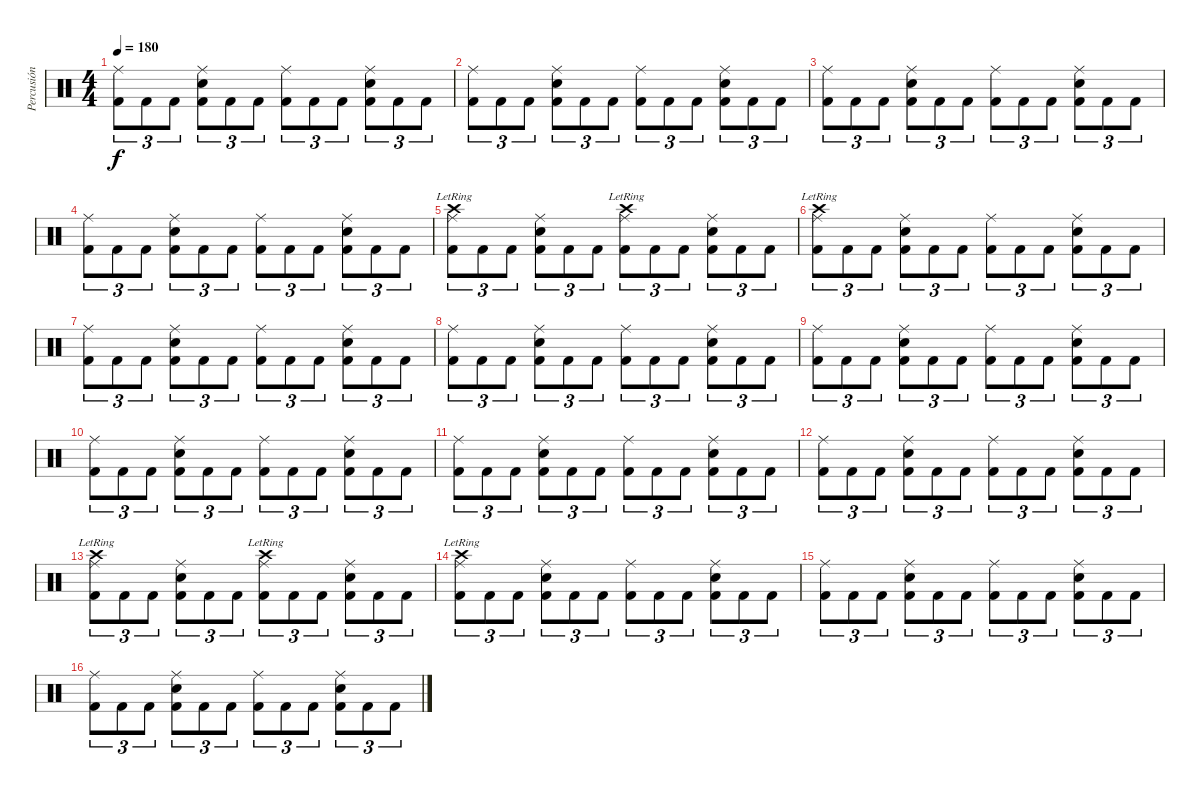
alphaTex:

\track ("Percusión" "Percusión") {instrument percussion}
\staff {score}
\articulation defaults
\ts (4 4)
\tempo 180
\clef neutral
\ks c
("Ride (middle)" "Kick (hit) 2").8{tu (3 2) dy f} "Kick (hit) 2".8{tu (3 2)} "Kick (hit) 2".8{tu (3 2)} ("Ride (middle)" "Snare (hit) 2" "Kick (hit) 2").8{tu (3 2)} "Kick (hit) 2".8{tu (3 2)} "Kick (hit) 2".8{tu (3 2)} ("Ride (middle)" "Kick (hit) 2").8{tu (3 2)} "Kick (hit) 2".8{tu (3 2)} "Kick (hit) 2".8{tu (3 2)} ("Ride (middle)" "Snare (hit) 2" "Kick (hit) 2").8{tu (3 2)} "Kick (hit) 2".8{tu (3 2)} "Kick (hit) 2".8{tu (3 2)} |
("Ride (middle)" "Kick (hit) 2").8{tu (3 2)} "Kick (hit) 2".8{tu (3 2)} "Kick (hit) 2".8{tu (3 2)} ("Ride (middle)" "Snare (hit) 2" "Kick (hit) 2").8{tu (3 2)} "Kick (hit) 2".8{tu (3 2)} "Kick (hit) 2".8{tu (3 2)} ("Ride (middle)" "Kick (hit) 2").8{tu (3 2)} "Kick (hit) 2".8{tu (3 2)} "Kick (hit) 2".8{tu (3 2)} ("Ride (middle)" "Snare (hit) 2" "Kick (hit) 2").8{tu (3 2)} "Kick (hit) 2".8{tu (3 2)} "Kick (hit) 2".8{tu (3 2)} |
("Ride (middle)" "Kick (hit) 2").8{tu (3 2)} "Kick (hit) 2".8{tu (3 2)} "Kick (hit) 2".8{tu (3 2)} ("Ride (middle)" "Snare (hit) 2" "Kick (hit) 2").8{tu (3 2)} "Kick (hit) 2".8{tu (3 2)} "Kick (hit) 2".8{tu (3 2)} ("Ride (middle)" "Kick (hit) 2").8{tu (3 2)} "Kick (hit) 2".8{tu (3 2)} "Kick (hit) 2".8{tu (3 2)} ("Ride (middle)" "Snare (hit) 2" "Kick (hit) 2").8{tu (3 2)} "Kick (hit) 2".8{tu (3 2)} "Kick (hit) 2".8{tu (3 2)} |
("Ride (middle)" "Kick (hit) 2").8{tu (3 2)} "Kick (hit) 2".8{tu (3 2)} "Kick (hit) 2".8{tu (3 2)} ("Ride (middle)" "Snare (hit) 2" "Kick (hit) 2").8{tu (3 2)} "Kick (hit) 2".8{tu (3 2)} "Kick (hit) 2".8{tu (3 2)} ("Ride (middle)" "Kick (hit) 2").8{tu (3 2)} "Kick (hit) 2".8{tu (3 2)} "Kick (hit) 2".8{tu (3 2)} ("Ride (middle)" "Snare (hit) 2" "Kick (hit) 2").8{tu (3 2)} "Kick (hit) 2".8{tu (3 2)} "Kick (hit) 2".8{tu (3 2)} |
("Crash high (hit)"{lr} "Ride (middle)" "Kick (hit) 2").8{tu (3 2)} "Kick (hit) 2".8{tu (3 2)} "Kick (hit) 2".8{tu (3 2)} ("Ride (middle)" "Snare (hit) 2" "Kick (hit) 2").8{tu (3 2)} "Kick (hit) 2".8{tu (3 2)} "Kick (hit) 2".8{tu (3 2)} ("Crash high (hit)"{lr} "Ride (middle)" "Kick (hit) 2").8{tu (3 2)} "Kick (hit) 2".8{tu (3 2)} "Kick (hit) 2".8{tu (3 2)} ("Ride (middle)" "Snare (hit) 2" "Kick (hit) 2").8{tu (3 2)} "Kick (hit) 2".8{tu (3 2)} "Kick (hit) 2".8{tu (3 2)} |
("Crash high (hit)"{lr} "Ride (middle)" "Kick (hit) 2").8{tu (3 2)} "Kick (hit) 2".8{tu (3 2)} "Kick (hit) 2".8{tu (3 2)} ("Ride (middle)" "Snare (hit) 2" "Kick (hit) 2").8{tu (3 2)} "Kick (hit) 2".8{tu (3 2)} "Kick (hit) 2".8{tu (3 2)} ("Ride (middle)" "Kick (hit) 2").8{tu (3 2)} "Kick (hit) 2".8{tu (3 2)} "Kick (hit) 2".8{tu (3 2)} ("Ride (middle)" "Snare (hit) 2" "Kick (hit) 2").8{tu (3 2)} "Kick (hit) 2".8{tu (3 2)} "Kick (hit) 2".8{tu (3 2)} |
("Ride (middle)" "Kick (hit) 2").8{tu (3 2)} "Kick (hit) 2".8{tu (3 2)} "Kick (hit) 2".8{tu (3 2)} ("Ride (middle)" "Snare (hit) 2" "Kick (hit) 2").8{tu (3 2)} "Kick (hit) 2".8{tu (3 2)} "Kick (hit) 2".8{tu (3 2)} ("Ride (middle)" "Kick (hit) 2").8{tu (3 2)} "Kick (hit) 2".8{tu (3 2)} "Kick (hit) 2".8{tu (3 2)} ("Ride (middle)" "Snare (hit) 2" "Kick (hit) 2").8{tu (3 2)} "Kick (hit) 2".8{tu (3 2)} "Kick (hit) 2".8{tu (3 2)} |
("Ride (middle)" "Kick (hit) 2").8{tu (3 2)} "Kick (hit) 2".8{tu (3 2)} "Kick (hit) 2".8{tu (3 2)} ("Ride (middle)" "Snare (hit) 2" "Kick (hit) 2").8{tu (3 2)} "Kick (hit) 2".8{tu (3 2)} "Kick (hit) 2".8{tu (3 2)} ("Ride (middle)" "Kick (hit) 2").8{tu (3 2)} "Kick (hit) 2".8{tu (3 2)} "Kick (hit) 2".8{tu (3 2)} ("Ride (middle)" "Snare (hit) 2" "Kick (hit) 2").8{tu (3 2)} "Kick (hit) 2".8{tu (3 2)} "Kick (hit) 2".8{tu (3 2)} |
("Ride (middle)" "Kick (hit) 2").8{tu (3 2)} "Kick (hit) 2".8{tu (3 2)} "Kick (hit) 2".8{tu (3 2)} ("Ride (middle)" "Snare (hit) 2" "Kick (hit) 2").8{tu (3 2)} "Kick (hit) 2".8{tu (3 2)} "Kick (hit) 2".8{tu (3 2)} ("Ride (middle)" "Kick (hit) 2").8{tu (3 2)} "Kick (hit) 2".8{tu (3 2)} "Kick (hit) 2".8{tu (3 2)} ("Ride (middle)" "Snare (hit) 2" "Kick (hit) 2").8{tu (3 2)} "Kick (hit) 2".8{tu (3 2)} "Kick (hit) 2".8{tu (3 2)} |
("Ride (middle)" "Kick (hit) 2").8{tu (3 2)} "Kick (hit) 2".8{tu (3 2)} "Kick (hit) 2".8{tu (3 2)} ("Ride (middle)" "Snare (hit) 2" "Kick (hit) 2").8{tu (3 2)} "Kick (hit) 2".8{tu (3 2)} "Kick (hit) 2".8{tu (3 2)} ("Ride (middle)" "Kick (hit) 2").8{tu (3 2)} "Kick (hit) 2".8{tu (3 2)} "Kick (hit) 2".8{tu (3 2)} ("Ride (middle)" "Snare (hit) 2" "Kick (hit) 2").8{tu (3 2)} "Kick (hit) 2".8{tu (3 2)} "Kick (hit) 2".8{tu (3 2)} |
("Ride (middle)" "Kick (hit) 2").8{tu (3 2)} "Kick (hit) 2".8{tu (3 2)} "Kick (hit) 2".8{tu (3 2)} ("Ride (middle)" "Snare (hit) 2" "Kick (hit) 2").8{tu (3 2)} "Kick (hit) 2".8{tu (3 2)} "Kick (hit) 2".8{tu (3 2)} ("Ride (middle)" "Kick (hit) 2").8{tu (3 2)} "Kick (hit) 2".8{tu (3 2)} "Kick (hit) 2".8{tu (3 2)} ("Ride (middle)" "Snare (hit) 2" "Kick (hit) 2").8{tu (3 2)} "Kick (hit) 2".8{tu (3 2)} "Kick (hit) 2".8{tu (3 2)} |
("Ride (middle)" "Kick (hit) 2").8{tu (3 2)} "Kick (hit) 2".8{tu (3 2)} "Kick (hit) 2".8{tu (3 2)} ("Ride (middle)" "Snare (hit) 2" "Kick (hit) 2").8{tu (3 2)} "Kick (hit) 2".8{tu (3 2)} "Kick (hit) 2".8{tu (3 2)} ("Ride (middle)" "Kick (hit) 2").8{tu (3 2)} "Kick (hit) 2".8{tu (3 2)} "Kick (hit) 2".8{tu (3 2)} ("Ride (middle)" "Snare (hit) 2" "Kick (hit) 2").8{tu (3 2)} "Kick (hit) 2".8{tu (3 2)} "Kick (hit) 2".8{tu (3 2)} |
("Crash high (hit)"{lr} "Ride (middle)" "Kick (hit) 2").8{tu (3 2)} "Kick (hit) 2".8{tu (3 2)} "Kick (hit) 2".8{tu (3 2)} ("Ride (middle)" "Snare (hit) 2" "Kick (hit) 2").8{tu (3 2)} "Kick (hit) 2".8{tu (3 2)} "Kick (hit) 2".8{tu (3 2)} ("Crash high (hit)"{lr} "Ride (middle)" "Kick (hit) 2").8{tu (3 2)} "Kick (hit) 2".8{tu (3 2)} "Kick (hit) 2".8{tu (3 2)} ("Ride (middle)" "Snare (hit) 2" "Kick (hit) 2").8{tu (3 2)} "Kick (hit) 2".8{tu (3 2)} "Kick (hit) 2".8{tu (3 2)} |
("Crash high (hit)"{lr} "Ride (middle)" "Kick (hit) 2").8{tu (3 2)} "Kick (hit) 2".8{tu (3 2)} "Kick (hit) 2".8{tu (3 2)} ("Ride (middle)" "Snare (hit) 2" "Kick (hit) 2").8{tu (3 2)} "Kick (hit) 2".8{tu (3 2)} "Kick (hit) 2".8{tu (3 2)} ("Ride (middle)" "Kick (hit) 2").8{tu (3 2)} "Kick (hit) 2".8{tu (3 2)} "Kick (hit) 2".8{tu (3 2)} ("Ride (middle)" "Snare (hit) 2" "Kick (hit) 2").8{tu (3 2)} "Kick (hit) 2".8{tu (3 2)} "Kick (hit) 2".8{tu (3 2)} |
("Ride (middle)" "Kick (hit) 2").8{tu (3 2)} "Kick (hit) 2".8{tu (3 2)} "Kick (hit) 2".8{tu (3 2)} ("Ride (middle)" "Snare (hit) 2" "Kick (hit) 2").8{tu (3 2)} "Kick (hit) 2".8{tu (3 2)} "Kick (hit) 2".8{tu (3 2)} ("Ride (middle)" "Kick (hit) 2").8{tu (3 2)} "Kick (hit) 2".8{tu (3 2)} "Kick (hit) 2".8{tu (3 2)} ("Ride (middle)" "Snare (hit) 2" "Kick (hit) 2").8{tu (3 2)} "Kick (hit) 2".8{tu (3 2)} "Kick (hit) 2".8{tu (3 2)} |
("Ride (middle)" "Kick (hit) 2").8{tu (3 2)} "Kick (hit) 2".8{tu (3 2)} "Kick (hit) 2".8{tu (3 2)} ("Ride (middle)" "Snare (hit) 2" "Kick (hit) 2").8{tu (3 2)} "Kick (hit) 2".8{tu (3 2)} "Kick (hit) 2".8{tu (3 2)} ("Ride (middle)" "Kick (hit) 2").8{tu (3 2)} "Kick (hit) 2".8{tu (3 2)} "Kick (hit) 2".8{tu (3 2)} ("Ride (middle)" "Snare (hit) 2" "Kick (hit) 2").8{tu (3 2)} "Kick (hit) 2".8{tu (3 2)} "Kick (hit) 2".8{tu (3 2)}
